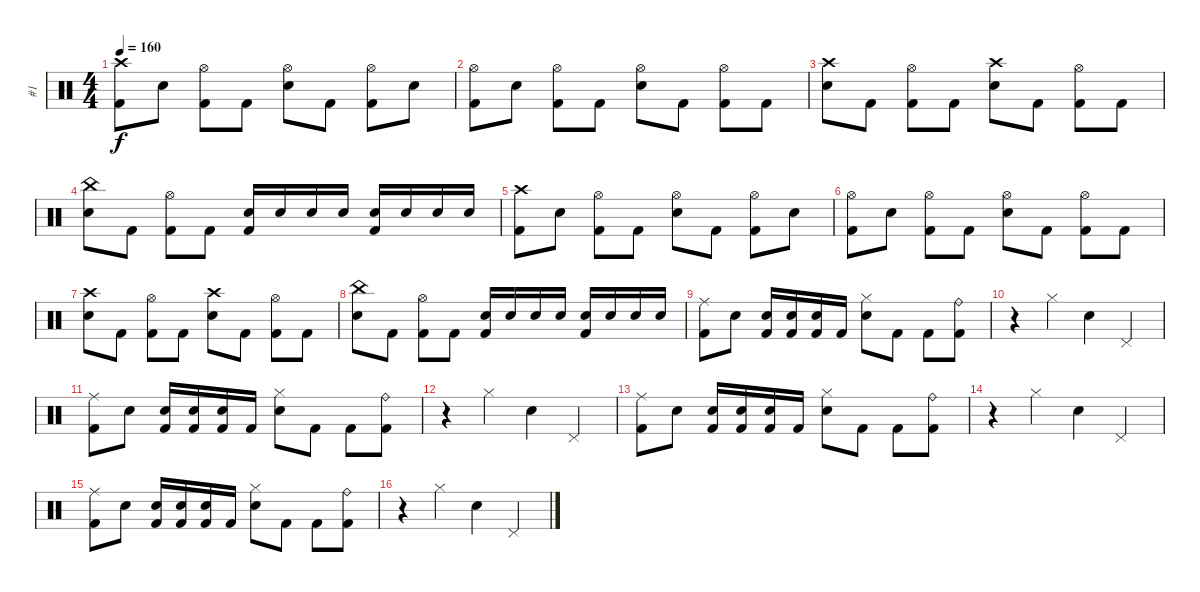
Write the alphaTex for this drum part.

\track ("#1" "#1") {instrument percussion}
\staff {score}
\articulation defaults
\ts (4 4)
\tempo 160
\clef neutral
\ks c
("Kick (hit) 2" "Crash high (hit)").8{dy f} "Electric Snare (hit)".8 ("Kick (hit) 2" "Hi-Hat (open)").8 "Kick (hit) 2".8 ("Electric Snare (hit)" "Hi-Hat (open)").8 "Kick (hit) 2".8 ("Kick (hit) 2" "Hi-Hat (open)").8 "Electric Snare (hit)".8 |
("Kick (hit) 2" "Hi-Hat (open)").8 "Electric Snare (hit)".8 ("Kick (hit) 2" "Hi-Hat (open)").8 "Kick (hit) 2".8 ("Electric Snare (hit)" "Hi-Hat (open)").8 "Kick (hit) 2".8 ("Kick (hit) 2" "Hi-Hat (open)").8 "Kick (hit) 2".8 |
("Electric Snare (hit)" "Crash high (hit)").8 "Kick (hit) 2".8 ("Kick (hit) 2" "Hi-Hat (open)").8 "Kick (hit) 2".8 ("Electric Snare (hit)" "Crash high (hit)").8 "Kick (hit) 2".8 ("Kick (hit) 2" "Hi-Hat (open)").8 "Kick (hit) 2".8 |
("Electric Snare (hit)" "China (hit)").8 "Kick (hit) 2".8 ("Kick (hit) 2" "Hi-Hat (open)").8 "Kick (hit) 2".8 ("Electric Snare (hit)" "Kick (hit) 2").16 "Electric Snare (hit)".16 "Electric Snare (hit)".16 "Electric Snare (hit)".16 ("Electric Snare (hit)" "Kick (hit) 2").16 "Electric Snare (hit)".16 "Electric Snare (hit)".16 "Electric Snare (hit)".16 |
("Kick (hit) 2" "Crash high (hit)").8 "Electric Snare (hit)".8 ("Kick (hit) 2" "Hi-Hat (open)").8 "Kick (hit) 2".8 ("Electric Snare (hit)" "Hi-Hat (open)").8 "Kick (hit) 2".8 ("Kick (hit) 2" "Hi-Hat (open)").8 "Electric Snare (hit)".8 |
("Kick (hit) 2" "Hi-Hat (open)").8 "Electric Snare (hit)".8 ("Kick (hit) 2" "Hi-Hat (open)").8 "Kick (hit) 2".8 ("Electric Snare (hit)" "Hi-Hat (open)").8 "Kick (hit) 2".8 ("Kick (hit) 2" "Hi-Hat (open)").8 "Kick (hit) 2".8 |
("Electric Snare (hit)" "Crash high (hit)").8 "Kick (hit) 2".8 ("Kick (hit) 2" "Hi-Hat (open)").8 "Kick (hit) 2".8 ("Electric Snare (hit)" "Crash high (hit)").8 "Kick (hit) 2".8 ("Kick (hit) 2" "Hi-Hat (open)").8 "Kick (hit) 2".8 |
("Electric Snare (hit)" "China (hit)").8 "Kick (hit) 2".8 ("Kick (hit) 2" "Hi-Hat (open)").8 "Kick (hit) 2".8 ("Electric Snare (hit)" "Kick (hit) 2").16 "Electric Snare (hit)".16 "Electric Snare (hit)".16 "Electric Snare (hit)".16 ("Electric Snare (hit)" "Kick (hit) 2").16 "Electric Snare (hit)".16 "Electric Snare (hit)".16 "Electric Snare (hit)".16 |
("Kick (hit) 2" "Ride (middle)").8 "Electric Snare (hit)".8 ("Kick (hit) 2" "Electric Snare (hit)").16 ("Kick (hit) 2" "Electric Snare (hit)").16 ("Kick (hit) 2" "Electric Snare (hit)").16 "Kick (hit) 2".16 ("Electric Snare (hit)" "Hi-Hat (closed)").8 "Kick (hit) 2".8 "Kick (hit) 2".8 ("Kick (hit) 2" "Ride (bell)").8 |
r.4 "Hi-Hat (closed)".4 "Electric Snare (hit)".4 "Pedal Hi-Hat (hit)".4 |
("Kick (hit) 2" "Ride (middle)").8 "Electric Snare (hit)".8 ("Kick (hit) 2" "Electric Snare (hit)").16 ("Kick (hit) 2" "Electric Snare (hit)").16 ("Kick (hit) 2" "Electric Snare (hit)").16 "Kick (hit) 2".16 ("Electric Snare (hit)" "Hi-Hat (closed)").8 "Kick (hit) 2".8 "Kick (hit) 2".8 ("Kick (hit) 2" "Ride (bell)").8 |
r.4 "Hi-Hat (closed)".4 "Electric Snare (hit)".4 "Pedal Hi-Hat (hit)".4 |
("Kick (hit) 2" "Ride (middle)").8 "Electric Snare (hit)".8 ("Kick (hit) 2" "Electric Snare (hit)").16 ("Kick (hit) 2" "Electric Snare (hit)").16 ("Kick (hit) 2" "Electric Snare (hit)").16 "Kick (hit) 2".16 ("Electric Snare (hit)" "Hi-Hat (closed)").8 "Kick (hit) 2".8 "Kick (hit) 2".8 ("Kick (hit) 2" "Ride (bell)").8 |
r.4 "Hi-Hat (closed)".4 "Electric Snare (hit)".4 "Pedal Hi-Hat (hit)".4 |
("Kick (hit) 2" "Ride (middle)").8 "Electric Snare (hit)".8 ("Kick (hit) 2" "Electric Snare (hit)").16 ("Kick (hit) 2" "Electric Snare (hit)").16 ("Kick (hit) 2" "Electric Snare (hit)").16 "Kick (hit) 2".16 ("Electric Snare (hit)" "Hi-Hat (closed)").8 "Kick (hit) 2".8 "Kick (hit) 2".8 ("Kick (hit) 2" "Ride (bell)").8 |
r.4 "Hi-Hat (closed)".4 "Electric Snare (hit)".4 "Pedal Hi-Hat (hit)".4
